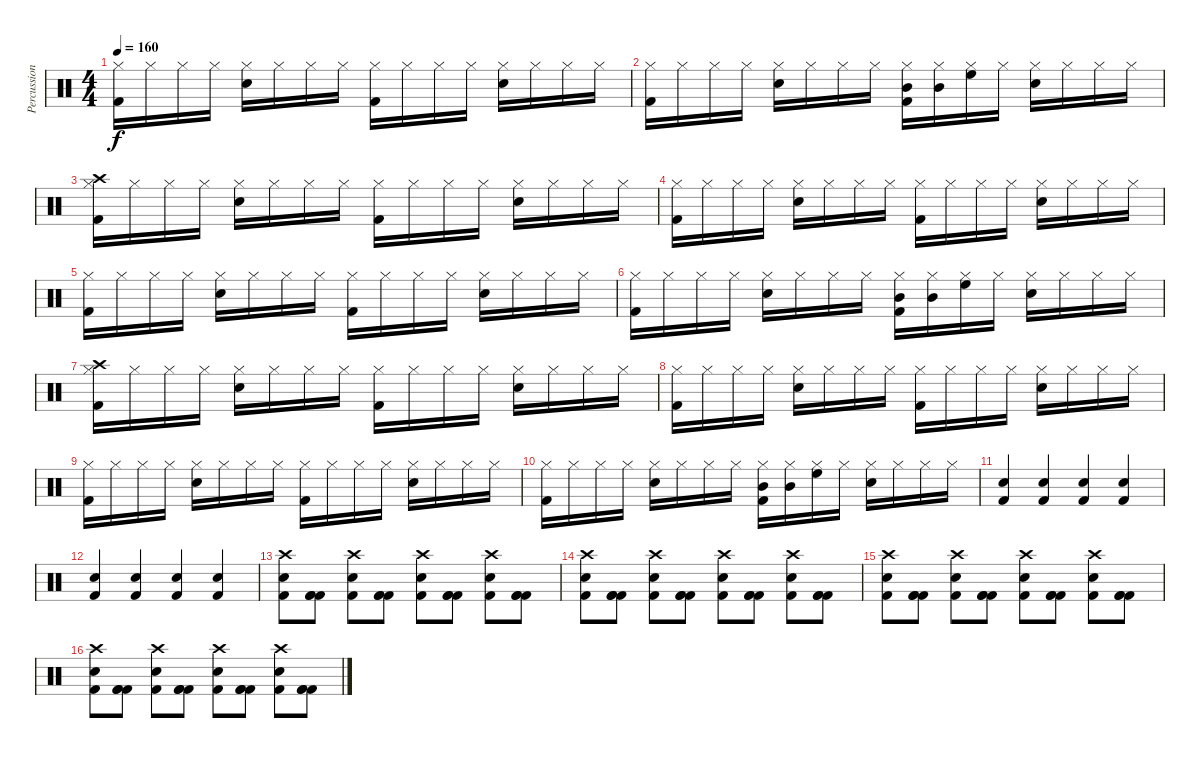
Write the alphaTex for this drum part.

\track ("Percussion" "Percussion") {instrument percussion}
\staff {score}
\articulation defaults
\ts (4 4)
\tempo 160
\clef neutral
\ks c
("Kick (hit) 2" "Hi-Hat (closed)").16{dy f} "Hi-Hat (closed)".16 "Hi-Hat (closed)".16 "Hi-Hat (closed)".16 ("Electric Snare (hit)" "Hi-Hat (closed)").16 "Hi-Hat (closed)".16 "Hi-Hat (closed)".16 "Hi-Hat (closed)".16 ("Kick (hit) 2" "Hi-Hat (closed)").16 "Hi-Hat (closed)".16 "Hi-Hat (closed)".16 "Hi-Hat (closed)".16 ("Electric Snare (hit)" "Hi-Hat (closed)").16 "Hi-Hat (closed)".16 "Hi-Hat (closed)".16 "Hi-Hat (closed)".16 |
("Kick (hit) 2" "Hi-Hat (closed)").16 "Hi-Hat (closed)".16 "Hi-Hat (closed)".16 "Hi-Hat (closed)".16 ("Electric Snare (hit)" "Hi-Hat (closed)").16 "Hi-Hat (closed)".16 "Hi-Hat (closed)".16 "Hi-Hat (closed)".16 ("Kick (hit) 2" "Hi-Hat (closed)" "Mid Tom (hit)").16 ("Hi-Hat (closed)" "Mid Tom (hit)").16 ("Hi-Hat (closed)" "High Floor Tom (hit)").16 "Hi-Hat (closed)".16 ("Electric Snare (hit)" "Hi-Hat (closed)").16 "Hi-Hat (closed)".16 "Hi-Hat (closed)".16 "Hi-Hat (closed)".16 |
("Kick (hit) 2" "Hi-Hat (closed)" "Crash high (hit)").16 "Hi-Hat (closed)".16 "Hi-Hat (closed)".16 "Hi-Hat (closed)".16 ("Electric Snare (hit)" "Hi-Hat (closed)").16 "Hi-Hat (closed)".16 "Hi-Hat (closed)".16 "Hi-Hat (closed)".16 ("Kick (hit) 2" "Hi-Hat (closed)").16 "Hi-Hat (closed)".16 "Hi-Hat (closed)".16 "Hi-Hat (closed)".16 ("Electric Snare (hit)" "Hi-Hat (closed)").16 "Hi-Hat (closed)".16 "Hi-Hat (closed)".16 "Hi-Hat (closed)".16 |
("Kick (hit) 2" "Hi-Hat (closed)").16 "Hi-Hat (closed)".16 "Hi-Hat (closed)".16 "Hi-Hat (closed)".16 ("Electric Snare (hit)" "Hi-Hat (closed)").16 "Hi-Hat (closed)".16 "Hi-Hat (closed)".16 "Hi-Hat (closed)".16 ("Kick (hit) 2" "Hi-Hat (closed)").16 "Hi-Hat (closed)".16 "Hi-Hat (closed)".16 "Hi-Hat (closed)".16 ("Electric Snare (hit)" "Hi-Hat (closed)").16 "Hi-Hat (closed)".16 "Hi-Hat (closed)".16 "Hi-Hat (closed)".16 |
("Kick (hit) 2" "Hi-Hat (closed)").16 "Hi-Hat (closed)".16 "Hi-Hat (closed)".16 "Hi-Hat (closed)".16 ("Electric Snare (hit)" "Hi-Hat (closed)").16 "Hi-Hat (closed)".16 "Hi-Hat (closed)".16 "Hi-Hat (closed)".16 ("Kick (hit) 2" "Hi-Hat (closed)").16 "Hi-Hat (closed)".16 "Hi-Hat (closed)".16 "Hi-Hat (closed)".16 ("Electric Snare (hit)" "Hi-Hat (closed)").16 "Hi-Hat (closed)".16 "Hi-Hat (closed)".16 "Hi-Hat (closed)".16 |
("Kick (hit) 2" "Hi-Hat (closed)").16 "Hi-Hat (closed)".16 "Hi-Hat (closed)".16 "Hi-Hat (closed)".16 ("Electric Snare (hit)" "Hi-Hat (closed)").16 "Hi-Hat (closed)".16 "Hi-Hat (closed)".16 "Hi-Hat (closed)".16 ("Kick (hit) 2" "Hi-Hat (closed)" "Mid Tom (hit)").16 ("Hi-Hat (closed)" "Mid Tom (hit)").16 ("Hi-Hat (closed)" "High Floor Tom (hit)").16 "Hi-Hat (closed)".16 ("Electric Snare (hit)" "Hi-Hat (closed)").16 "Hi-Hat (closed)".16 "Hi-Hat (closed)".16 "Hi-Hat (closed)".16 |
("Kick (hit) 2" "Hi-Hat (closed)" "Crash high (hit)").16 "Hi-Hat (closed)".16 "Hi-Hat (closed)".16 "Hi-Hat (closed)".16 ("Electric Snare (hit)" "Hi-Hat (closed)").16 "Hi-Hat (closed)".16 "Hi-Hat (closed)".16 "Hi-Hat (closed)".16 ("Kick (hit) 2" "Hi-Hat (closed)").16 "Hi-Hat (closed)".16 "Hi-Hat (closed)".16 "Hi-Hat (closed)".16 ("Electric Snare (hit)" "Hi-Hat (closed)").16 "Hi-Hat (closed)".16 "Hi-Hat (closed)".16 "Hi-Hat (closed)".16 |
("Kick (hit) 2" "Hi-Hat (closed)").16 "Hi-Hat (closed)".16 "Hi-Hat (closed)".16 "Hi-Hat (closed)".16 ("Electric Snare (hit)" "Hi-Hat (closed)").16 "Hi-Hat (closed)".16 "Hi-Hat (closed)".16 "Hi-Hat (closed)".16 ("Kick (hit) 2" "Hi-Hat (closed)").16 "Hi-Hat (closed)".16 "Hi-Hat (closed)".16 "Hi-Hat (closed)".16 ("Electric Snare (hit)" "Hi-Hat (closed)").16 "Hi-Hat (closed)".16 "Hi-Hat (closed)".16 "Hi-Hat (closed)".16 |
("Kick (hit) 2" "Hi-Hat (closed)").16 "Hi-Hat (closed)".16 "Hi-Hat (closed)".16 "Hi-Hat (closed)".16 ("Electric Snare (hit)" "Hi-Hat (closed)").16 "Hi-Hat (closed)".16 "Hi-Hat (closed)".16 "Hi-Hat (closed)".16 ("Kick (hit) 2" "Hi-Hat (closed)").16 "Hi-Hat (closed)".16 "Hi-Hat (closed)".16 "Hi-Hat (closed)".16 ("Electric Snare (hit)" "Hi-Hat (closed)").16 "Hi-Hat (closed)".16 "Hi-Hat (closed)".16 "Hi-Hat (closed)".16 |
("Kick (hit) 2" "Hi-Hat (closed)").16 "Hi-Hat (closed)".16 "Hi-Hat (closed)".16 "Hi-Hat (closed)".16 ("Electric Snare (hit)" "Hi-Hat (closed)").16 "Hi-Hat (closed)".16 "Hi-Hat (closed)".16 "Hi-Hat (closed)".16 ("Kick (hit) 2" "Hi-Hat (closed)" "Mid Tom (hit)").16 ("Hi-Hat (closed)" "Mid Tom (hit)").16 ("Hi-Hat (closed)" "High Floor Tom (hit)").16 "Hi-Hat (closed)".16 ("Electric Snare (hit)" "Hi-Hat (closed)").16 "Hi-Hat (closed)".16 "Hi-Hat (closed)".16 "Hi-Hat (closed)".16 |
("Kick (hit) 2" "Electric Snare (hit)").4 ("Kick (hit) 2" "Electric Snare (hit)").4 ("Kick (hit) 2" "Electric Snare (hit)").4 ("Kick (hit) 2" "Electric Snare (hit)").4 |
("Kick (hit) 2" "Electric Snare (hit)").4 ("Kick (hit) 2" "Electric Snare (hit)").4 ("Kick (hit) 2" "Electric Snare (hit)").4 ("Kick (hit) 2" "Electric Snare (hit)").4 |
("Kick (hit) 2" "Electric Snare (hit)" "Crash high (hit)").8 ("Kick (hit) 2" "Kick (hit) 2" "Kick (hit) 2").8 ("Kick (hit) 2" "Electric Snare (hit)" "Crash high (hit)").8 ("Kick (hit) 2" "Kick (hit) 2" "Kick (hit) 2").8 ("Kick (hit) 2" "Electric Snare (hit)" "Crash high (hit)").8 ("Kick (hit) 2" "Kick (hit) 2" "Kick (hit) 2").8 ("Kick (hit) 2" "Electric Snare (hit)" "Crash high (hit)").8 ("Kick (hit) 2" "Kick (hit) 2" "Kick (hit) 2").8 |
("Kick (hit) 2" "Electric Snare (hit)" "Crash high (hit)").8 ("Kick (hit) 2" "Kick (hit) 2" "Kick (hit) 2").8 ("Kick (hit) 2" "Electric Snare (hit)" "Crash high (hit)").8 ("Kick (hit) 2" "Kick (hit) 2" "Kick (hit) 2").8 ("Kick (hit) 2" "Electric Snare (hit)" "Crash high (hit)").8 ("Kick (hit) 2" "Kick (hit) 2" "Kick (hit) 2").8 ("Kick (hit) 2" "Electric Snare (hit)" "Crash high (hit)").8 ("Kick (hit) 2" "Kick (hit) 2" "Kick (hit) 2").8 |
("Kick (hit) 2" "Electric Snare (hit)" "Crash high (hit)").8 ("Kick (hit) 2" "Kick (hit) 2" "Kick (hit) 2").8 ("Kick (hit) 2" "Electric Snare (hit)" "Crash high (hit)").8 ("Kick (hit) 2" "Kick (hit) 2" "Kick (hit) 2").8 ("Kick (hit) 2" "Electric Snare (hit)" "Crash high (hit)").8 ("Kick (hit) 2" "Kick (hit) 2" "Kick (hit) 2").8 ("Kick (hit) 2" "Electric Snare (hit)" "Crash high (hit)").8 ("Kick (hit) 2" "Kick (hit) 2" "Kick (hit) 2").8 |
("Kick (hit) 2" "Electric Snare (hit)" "Crash high (hit)").8 ("Kick (hit) 2" "Kick (hit) 2" "Kick (hit) 2").8 ("Kick (hit) 2" "Electric Snare (hit)" "Crash high (hit)").8 ("Kick (hit) 2" "Kick (hit) 2" "Kick (hit) 2").8 ("Kick (hit) 2" "Electric Snare (hit)" "Crash high (hit)").8 ("Kick (hit) 2" "Kick (hit) 2" "Kick (hit) 2").8 ("Kick (hit) 2" "Electric Snare (hit)" "Crash high (hit)").8 ("Kick (hit) 2" "Kick (hit) 2" "Kick (hit) 2").8
